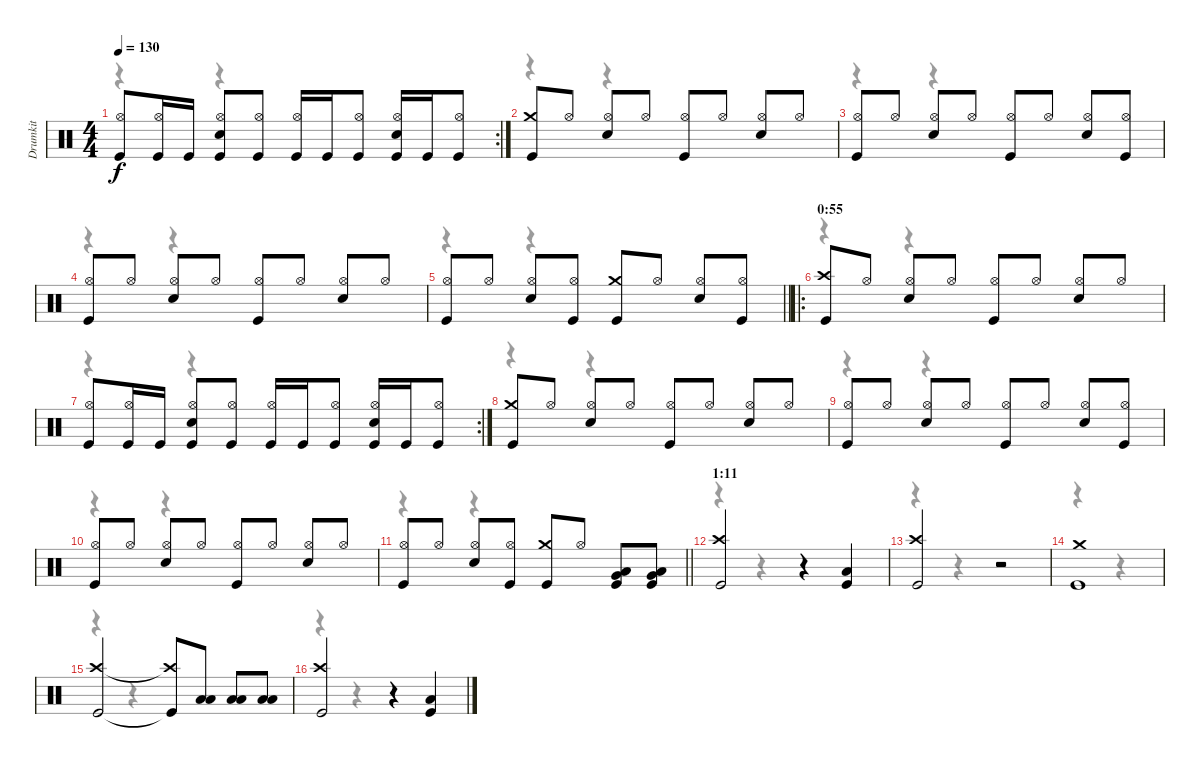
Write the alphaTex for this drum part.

\track ("Drumkit" "Drumkit") {instrument percussion}
\staff {score}
\articulation defaults
\voice
\rc 2
\ts (4 4)
\tempo 130
\clef neutral
\ks c
("Hi-Hat (open)" "Kick (hit)").8{dy f} ("Hi-Hat (open)" "Kick (hit)").16 "Kick (hit)".16 ("Hi-Hat (open)" "Snare (hit) 2" "Kick (hit)").8 ("Hi-Hat (open)" "Kick (hit)").8 ("Hi-Hat (open)" "Kick (hit)").16 "Kick (hit)".16 ("Hi-Hat (open)" "Kick (hit)").8 ("Hi-Hat (open)" "Snare (hit) 2" "Kick (hit)").16 "Kick (hit)".16 ("Hi-Hat (open)" "Kick (hit)").8 |
("Crash medium (hit)" "Kick (hit)").8 "Hi-Hat (open)".8 ("Hi-Hat (open)" "Snare (hit) 2").8 "Hi-Hat (open)".8 ("Hi-Hat (open)" "Kick (hit)").8 "Hi-Hat (open)".8 ("Hi-Hat (open)" "Snare (hit) 2").8 "Hi-Hat (open)".8 |
("Hi-Hat (open)" "Kick (hit)").8 "Hi-Hat (open)".8 ("Hi-Hat (open)" "Snare (hit) 2").8 "Hi-Hat (open)".8 ("Hi-Hat (open)" "Kick (hit)").8 "Hi-Hat (open)".8 ("Hi-Hat (open)" "Snare (hit) 2").8 ("Hi-Hat (open)" "Kick (hit)").8 |
("Hi-Hat (open)" "Kick (hit)").8 "Hi-Hat (open)".8 ("Hi-Hat (open)" "Snare (hit) 2").8 "Hi-Hat (open)".8 ("Hi-Hat (open)" "Kick (hit)").8 "Hi-Hat (open)".8 ("Hi-Hat (open)" "Snare (hit) 2").8 "Hi-Hat (open)".8 |
\barLineRight lightlight
("Hi-Hat (open)" "Kick (hit)").8 "Hi-Hat (open)".8 ("Hi-Hat (open)" "Snare (hit) 2").8 ("Hi-Hat (open)" "Kick (hit)").8 ("Crash medium (hit)" "Kick (hit)").8 "Hi-Hat (open)".8 ("Hi-Hat (open)" "Snare (hit) 2").8 ("Hi-Hat (open)" "Kick (hit)").8 |
\ro
\section ("" "0:55")
("Crash high (hit)" "Kick (hit)").8 "Hi-Hat (open)".8 ("Hi-Hat (open)" "Snare (hit) 2").8 "Hi-Hat (open)".8 ("Hi-Hat (open)" "Kick (hit)").8 "Hi-Hat (open)".8 ("Hi-Hat (open)" "Snare (hit) 2").8 "Hi-Hat (open)".8 |
\rc 2
("Hi-Hat (open)" "Kick (hit)").8 ("Hi-Hat (open)" "Kick (hit)").16 "Kick (hit)".16 ("Hi-Hat (open)" "Snare (hit) 2" "Kick (hit)").8 ("Hi-Hat (open)" "Kick (hit)").8 ("Hi-Hat (open)" "Kick (hit)").16 "Kick (hit)".16 ("Hi-Hat (open)" "Kick (hit)").8 ("Hi-Hat (open)" "Snare (hit) 2" "Kick (hit)").16 "Kick (hit)".16 ("Hi-Hat (open)" "Kick (hit)").8 |
("Crash medium (hit)" "Kick (hit)").8 "Hi-Hat (open)".8 ("Hi-Hat (open)" "Snare (hit) 2").8 "Hi-Hat (open)".8 ("Hi-Hat (open)" "Kick (hit)").8 "Hi-Hat (open)".8 ("Hi-Hat (open)" "Snare (hit) 2").8 "Hi-Hat (open)".8 |
("Hi-Hat (open)" "Kick (hit)").8 "Hi-Hat (open)".8 ("Hi-Hat (open)" "Snare (hit) 2").8 "Hi-Hat (open)".8 ("Hi-Hat (open)" "Kick (hit)").8 "Hi-Hat (open)".8 ("Hi-Hat (open)" "Snare (hit) 2").8 ("Hi-Hat (open)" "Kick (hit)").8 |
("Hi-Hat (open)" "Kick (hit)").8 "Hi-Hat (open)".8 ("Hi-Hat (open)" "Snare (hit) 2").8 "Hi-Hat (open)".8 ("Hi-Hat (open)" "Kick (hit)").8 "Hi-Hat (open)".8 ("Hi-Hat (open)" "Snare (hit) 2").8 "Hi-Hat (open)".8 |
\barLineRight lightlight
("Hi-Hat (open)" "Kick (hit)").8 "Hi-Hat (open)".8 ("Hi-Hat (open)" "Snare (hit) 2").8 ("Hi-Hat (open)" "Kick (hit)").8 ("Crash medium (hit)" "Kick (hit)").8 "Hi-Hat (open)".8 ("Low Tom (hit)" "Very Low Tom (hit)" "Kick (hit)").8 ("Very Low Tom (hit)" "Low Floor Tom (hit)" "Kick (hit)").8 |
\section ("" "1:11")
("Crash high (hit)" "Kick (hit)").2 r.4 ("Low Floor Tom (hit)" "Kick (hit)").4 |
("Crash high (hit)" "Kick (hit)").2 r.2 |
("Crash medium (hit)" "Kick (hit)").1 |
("Crash high (hit)" "Kick (hit)").2 ("Crash high (hit)"{t} "Kick (hit)"{t}).8 ("Low Tom (hit)" "Low Floor Tom (hit)").8 ("Low Tom (hit)" "Low Floor Tom (hit)").8 ("Low Tom (hit)" "Low Floor Tom (hit)").8 |
("Crash high (hit)" "Kick (hit)").2 r.4 ("Low Floor Tom (hit)" "Kick (hit)").4
\voice
\clef neutral
\ottava regular
\simile none
\ks c
r.4{dy f} r.4 |
r.4 r.4 |
r.4 r.4 |
r.4 r.4 |
\barLineRight lightlight
r.4 r.4 |
r.4 r.4 |
r.4 r.4 |
r.4 r.4 |
r.4 r.4 |
r.4 r.4 |
\barLineRight lightlight
r.4 r.4 |
r.4 r.4 |
r.4 r.4 |
r.4 r.4 |
r.4 r.4 |
r.4 r.4
